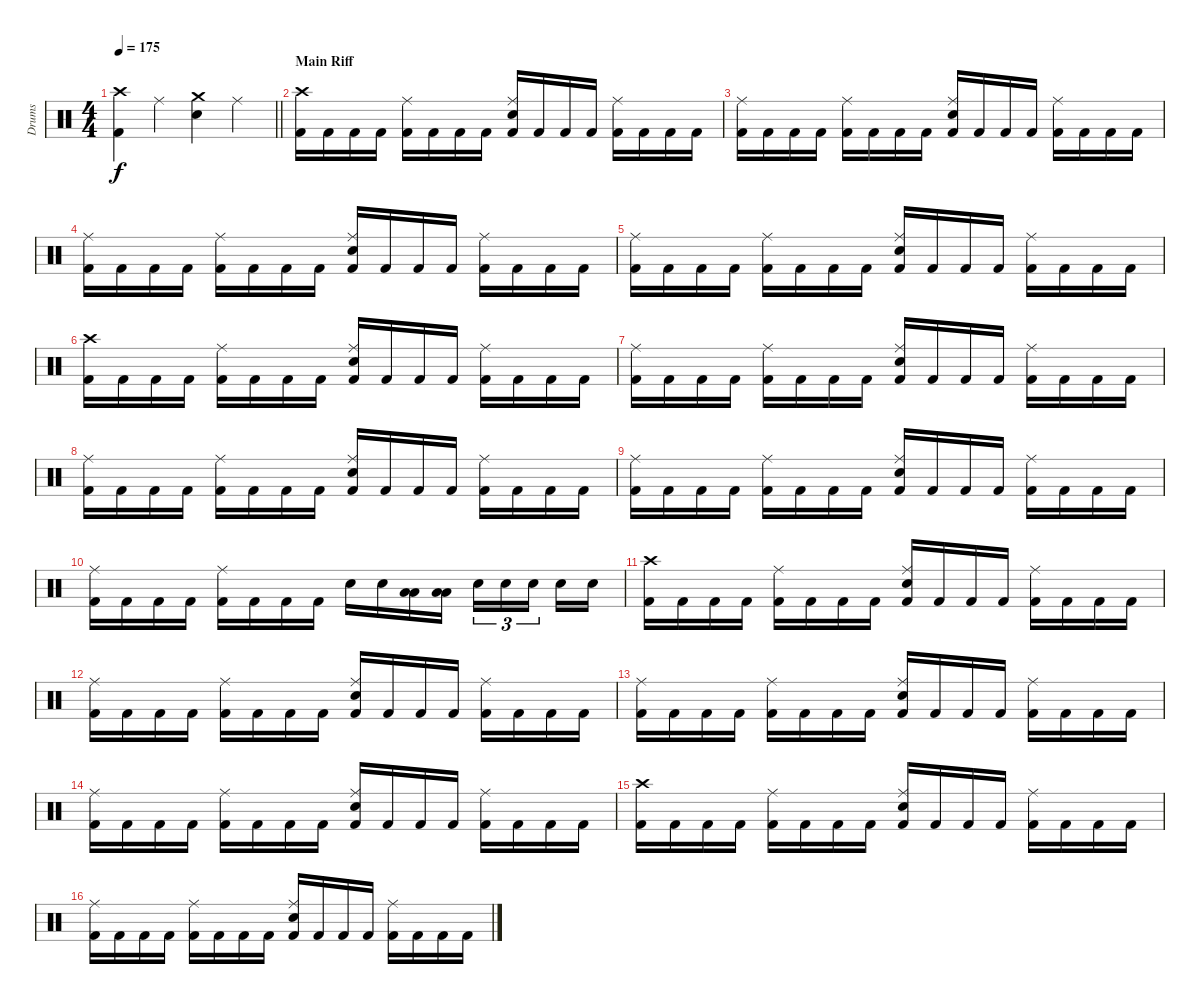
\track ("Drums" "Drums") {instrument percussion}
\staff {score}
\articulation defaults
\ts (4 4)
\tempo 175
\clef neutral
\barLineRight lightlight
\ks c
("Crash high (hit)" "Kick (hit) 2").4{dy f} "Ride (middle)".4 ("Crash medium (hit)" "Electric Snare (hit)").4 "Ride (middle)".4 |
\section ("" "Main Riff")
("Crash high (hit)" "Kick (hit) 2").16 "Kick (hit) 2".16 "Kick (hit) 2".16 "Kick (hit) 2".16 ("Ride (middle)" "Kick (hit) 2").16 "Kick (hit) 2".16 "Kick (hit) 2".16 "Kick (hit) 2".16 ("Ride (middle)" "Electric Snare (hit)" "Kick (hit) 2").16 "Kick (hit) 2".16 "Kick (hit) 2".16 "Kick (hit) 2".16 ("Ride (middle)" "Kick (hit) 2").16 "Kick (hit) 2".16 "Kick (hit) 2".16 "Kick (hit) 2".16 |
("Ride (middle)" "Kick (hit) 2").16 "Kick (hit) 2".16 "Kick (hit) 2".16 "Kick (hit) 2".16 ("Ride (middle)" "Kick (hit) 2").16 "Kick (hit) 2".16 "Kick (hit) 2".16 "Kick (hit) 2".16 ("Ride (middle)" "Electric Snare (hit)" "Kick (hit) 2").16 "Kick (hit) 2".16 "Kick (hit) 2".16 "Kick (hit) 2".16 ("Ride (middle)" "Kick (hit) 2").16 "Kick (hit) 2".16 "Kick (hit) 2".16 "Kick (hit) 2".16 |
("Ride (middle)" "Kick (hit) 2").16 "Kick (hit) 2".16 "Kick (hit) 2".16 "Kick (hit) 2".16 ("Ride (middle)" "Kick (hit) 2").16 "Kick (hit) 2".16 "Kick (hit) 2".16 "Kick (hit) 2".16 ("Ride (middle)" "Electric Snare (hit)" "Kick (hit) 2").16 "Kick (hit) 2".16 "Kick (hit) 2".16 "Kick (hit) 2".16 ("Ride (middle)" "Kick (hit) 2").16 "Kick (hit) 2".16 "Kick (hit) 2".16 "Kick (hit) 2".16 |
("Ride (middle)" "Kick (hit) 2").16 "Kick (hit) 2".16 "Kick (hit) 2".16 "Kick (hit) 2".16 ("Ride (middle)" "Kick (hit) 2").16 "Kick (hit) 2".16 "Kick (hit) 2".16 "Kick (hit) 2".16 ("Ride (middle)" "Electric Snare (hit)" "Kick (hit) 2").16 "Kick (hit) 2".16 "Kick (hit) 2".16 "Kick (hit) 2".16 ("Ride (middle)" "Kick (hit) 2").16 "Kick (hit) 2".16 "Kick (hit) 2".16 "Kick (hit) 2".16 |
("Crash high (hit)" "Kick (hit) 2").16 "Kick (hit) 2".16 "Kick (hit) 2".16 "Kick (hit) 2".16 ("Ride (middle)" "Kick (hit) 2").16 "Kick (hit) 2".16 "Kick (hit) 2".16 "Kick (hit) 2".16 ("Ride (middle)" "Electric Snare (hit)" "Kick (hit) 2").16 "Kick (hit) 2".16 "Kick (hit) 2".16 "Kick (hit) 2".16 ("Ride (middle)" "Kick (hit) 2").16 "Kick (hit) 2".16 "Kick (hit) 2".16 "Kick (hit) 2".16 |
("Ride (middle)" "Kick (hit) 2").16 "Kick (hit) 2".16 "Kick (hit) 2".16 "Kick (hit) 2".16 ("Ride (middle)" "Kick (hit) 2").16 "Kick (hit) 2".16 "Kick (hit) 2".16 "Kick (hit) 2".16 ("Ride (middle)" "Electric Snare (hit)" "Kick (hit) 2").16 "Kick (hit) 2".16 "Kick (hit) 2".16 "Kick (hit) 2".16 ("Ride (middle)" "Kick (hit) 2").16 "Kick (hit) 2".16 "Kick (hit) 2".16 "Kick (hit) 2".16 |
("Ride (middle)" "Kick (hit) 2").16 "Kick (hit) 2".16 "Kick (hit) 2".16 "Kick (hit) 2".16 ("Ride (middle)" "Kick (hit) 2").16 "Kick (hit) 2".16 "Kick (hit) 2".16 "Kick (hit) 2".16 ("Ride (middle)" "Electric Snare (hit)" "Kick (hit) 2").16 "Kick (hit) 2".16 "Kick (hit) 2".16 "Kick (hit) 2".16 ("Ride (middle)" "Kick (hit) 2").16 "Kick (hit) 2".16 "Kick (hit) 2".16 "Kick (hit) 2".16 |
("Ride (middle)" "Kick (hit) 2").16 "Kick (hit) 2".16 "Kick (hit) 2".16 "Kick (hit) 2".16 ("Ride (middle)" "Kick (hit) 2").16 "Kick (hit) 2".16 "Kick (hit) 2".16 "Kick (hit) 2".16 ("Ride (middle)" "Electric Snare (hit)" "Kick (hit) 2").16 "Kick (hit) 2".16 "Kick (hit) 2".16 "Kick (hit) 2".16 ("Ride (middle)" "Kick (hit) 2").16 "Kick (hit) 2".16 "Kick (hit) 2".16 "Kick (hit) 2".16 |
("Ride (middle)" "Kick (hit) 2").16 "Kick (hit) 2".16 "Kick (hit) 2".16 "Kick (hit) 2".16 ("Ride (middle)" "Kick (hit) 2").16 "Kick (hit) 2".16 "Kick (hit) 2".16 "Kick (hit) 2".16 "Electric Snare (hit)".16 "Electric Snare (hit)".16 ("Low Tom (hit)" "Low Tom (hit)").16 ("Low Tom (hit)" "Low Tom (hit)").16 "Electric Snare (hit)".16{tu (3 2)} "Electric Snare (hit)".16{tu (3 2)} "Electric Snare (hit)".16{tu (3 2) beam splitsecondary} "Electric Snare (hit)".16 "Electric Snare (hit)".16 |
("Crash high (hit)" "Kick (hit) 2").16 "Kick (hit) 2".16 "Kick (hit) 2".16 "Kick (hit) 2".16 ("Ride (middle)" "Kick (hit) 2").16 "Kick (hit) 2".16 "Kick (hit) 2".16 "Kick (hit) 2".16 ("Ride (middle)" "Electric Snare (hit)" "Kick (hit) 2").16 "Kick (hit) 2".16 "Kick (hit) 2".16 "Kick (hit) 2".16 ("Ride (middle)" "Kick (hit) 2").16 "Kick (hit) 2".16 "Kick (hit) 2".16 "Kick (hit) 2".16 |
("Ride (middle)" "Kick (hit) 2").16 "Kick (hit) 2".16 "Kick (hit) 2".16 "Kick (hit) 2".16 ("Ride (middle)" "Kick (hit) 2").16 "Kick (hit) 2".16 "Kick (hit) 2".16 "Kick (hit) 2".16 ("Ride (middle)" "Electric Snare (hit)" "Kick (hit) 2").16 "Kick (hit) 2".16 "Kick (hit) 2".16 "Kick (hit) 2".16 ("Ride (middle)" "Kick (hit) 2").16 "Kick (hit) 2".16 "Kick (hit) 2".16 "Kick (hit) 2".16 |
("Ride (middle)" "Kick (hit) 2").16 "Kick (hit) 2".16 "Kick (hit) 2".16 "Kick (hit) 2".16 ("Ride (middle)" "Kick (hit) 2").16 "Kick (hit) 2".16 "Kick (hit) 2".16 "Kick (hit) 2".16 ("Ride (middle)" "Electric Snare (hit)" "Kick (hit) 2").16 "Kick (hit) 2".16 "Kick (hit) 2".16 "Kick (hit) 2".16 ("Ride (middle)" "Kick (hit) 2").16 "Kick (hit) 2".16 "Kick (hit) 2".16 "Kick (hit) 2".16 |
("Ride (middle)" "Kick (hit) 2").16 "Kick (hit) 2".16 "Kick (hit) 2".16 "Kick (hit) 2".16 ("Ride (middle)" "Kick (hit) 2").16 "Kick (hit) 2".16 "Kick (hit) 2".16 "Kick (hit) 2".16 ("Ride (middle)" "Electric Snare (hit)" "Kick (hit) 2").16 "Kick (hit) 2".16 "Kick (hit) 2".16 "Kick (hit) 2".16 ("Ride (middle)" "Kick (hit) 2").16 "Kick (hit) 2".16 "Kick (hit) 2".16 "Kick (hit) 2".16 |
("Crash high (hit)" "Kick (hit) 2").16 "Kick (hit) 2".16 "Kick (hit) 2".16 "Kick (hit) 2".16 ("Ride (middle)" "Kick (hit) 2").16 "Kick (hit) 2".16 "Kick (hit) 2".16 "Kick (hit) 2".16 ("Ride (middle)" "Electric Snare (hit)" "Kick (hit) 2").16 "Kick (hit) 2".16 "Kick (hit) 2".16 "Kick (hit) 2".16 ("Ride (middle)" "Kick (hit) 2").16 "Kick (hit) 2".16 "Kick (hit) 2".16 "Kick (hit) 2".16 |
("Ride (middle)" "Kick (hit) 2").16 "Kick (hit) 2".16 "Kick (hit) 2".16 "Kick (hit) 2".16 ("Ride (middle)" "Kick (hit) 2").16 "Kick (hit) 2".16 "Kick (hit) 2".16 "Kick (hit) 2".16 ("Ride (middle)" "Electric Snare (hit)" "Kick (hit) 2").16 "Kick (hit) 2".16 "Kick (hit) 2".16 "Kick (hit) 2".16 ("Ride (middle)" "Kick (hit) 2").16 "Kick (hit) 2".16 "Kick (hit) 2".16 "Kick (hit) 2".16
